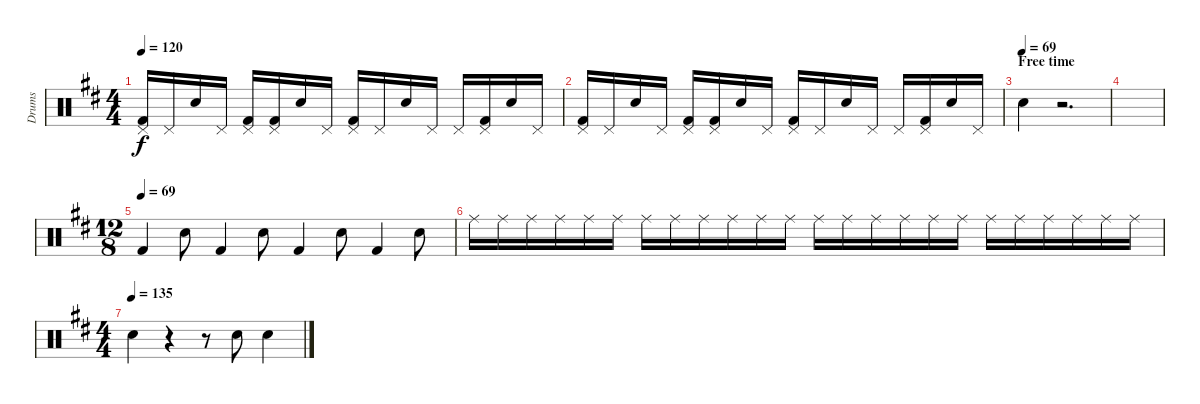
\track ("Drums" "Drums") {instrument percussion}
\staff {score}
\articulation defaults
\ts (4 4)
\tempo 120
\clef neutral
\ks d
("Pedal Hi-Hat (hit)" "Kick (hit) 2").16{dy f} "Pedal Hi-Hat (hit)".16 "Electric Snare (hit)".16 "Pedal Hi-Hat (hit)".16 ("Pedal Hi-Hat (hit)" "Kick (hit) 2").16 ("Pedal Hi-Hat (hit)" "Kick (hit) 2").16 "Electric Snare (hit)".16 "Pedal Hi-Hat (hit)".16 ("Pedal Hi-Hat (hit)" "Kick (hit) 2").16 "Pedal Hi-Hat (hit)".16 "Electric Snare (hit)".16 "Pedal Hi-Hat (hit)".16 "Pedal Hi-Hat (hit)".16 ("Pedal Hi-Hat (hit)" "Kick (hit) 2").16 "Electric Snare (hit)".16 "Pedal Hi-Hat (hit)".16 |
("Pedal Hi-Hat (hit)" "Kick (hit) 2").16 "Pedal Hi-Hat (hit)".16 "Electric Snare (hit)".16 "Pedal Hi-Hat (hit)".16 ("Pedal Hi-Hat (hit)" "Kick (hit) 2").16 ("Pedal Hi-Hat (hit)" "Kick (hit) 2").16 "Electric Snare (hit)".16 "Pedal Hi-Hat (hit)".16 ("Pedal Hi-Hat (hit)" "Kick (hit) 2").16 "Pedal Hi-Hat (hit)".16 "Electric Snare (hit)".16 "Pedal Hi-Hat (hit)".16 "Pedal Hi-Hat (hit)".16 ("Pedal Hi-Hat (hit)" "Kick (hit) 2").16 "Electric Snare (hit)".16 "Pedal Hi-Hat (hit)".16 |
\section ("" "Free time")
\tempo (69)
"Electric Snare (hit)".4 r.2{d} |
|
\ts (12 8)
\tempo (69)
"Kick (hit) 2".4 "Electric Snare (hit)".8 "Kick (hit) 2".4 "Electric Snare (hit)".8 "Kick (hit) 2".4 "Electric Snare (hit)".8 "Kick (hit) 2".4 "Electric Snare (hit)".8 |
"Ride (middle)".16 "Ride (middle)".16 "Ride (middle)".16 "Ride (middle)".16 "Ride (middle)".16 "Ride (middle)".16 "Ride (middle)".16 "Ride (middle)".16 "Ride (middle)".16 "Ride (middle)".16 "Ride (middle)".16 "Ride (middle)".16 "Ride (middle)".16 "Ride (middle)".16 "Ride (middle)".16 "Ride (middle)".16 "Ride (middle)".16 "Ride (middle)".16 "Ride (middle)".16 "Ride (middle)".16 "Ride (middle)".16 "Ride (middle)".16 "Ride (middle)".16 "Ride (middle)".16 |
\ts (4 4)
\tempo (135)
"Electric Snare (hit)".4 r.4 r.8 "Electric Snare (hit)".8 "Electric Snare (hit)".4
